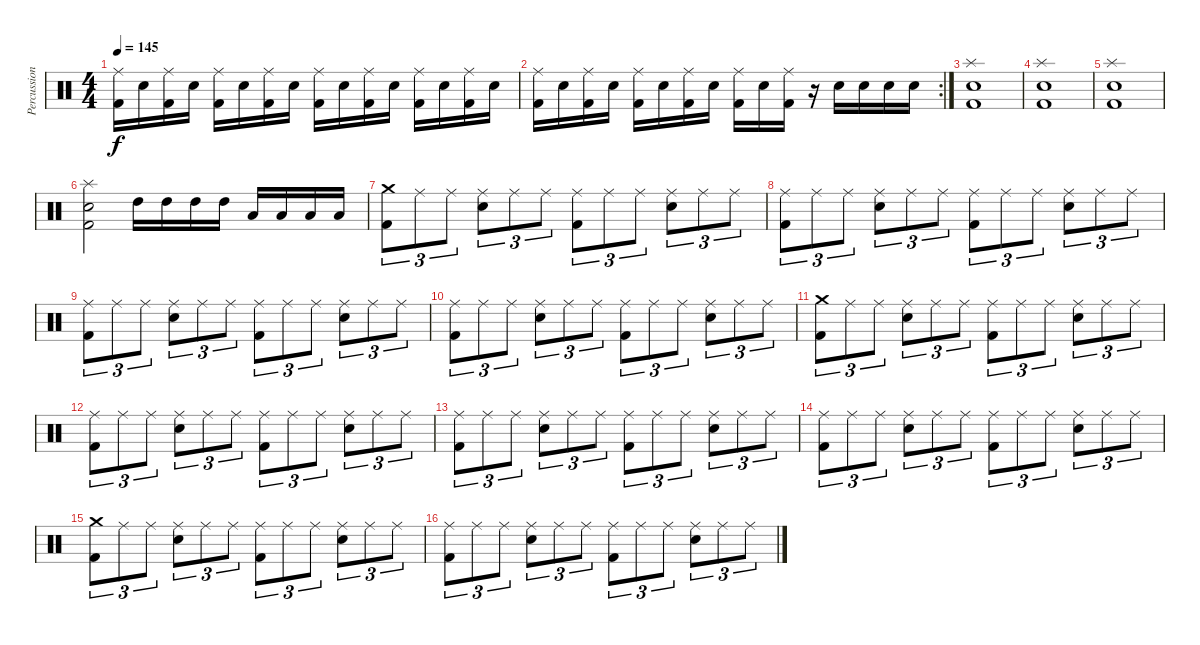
\track ("Percussions" "Percussion") {instrument percussion}
\staff {score}
\articulation defaults
\ts (4 4)
\tempo 145
\clef neutral
\ks c
("Ride (middle)" "Kick (hit) 2").16{dy f} "Snare (hit) 2".16 ("Ride (middle)" "Kick (hit) 2").16 "Snare (hit) 2".16 ("Ride (middle)" "Kick (hit) 2").16 "Snare (hit) 2".16 ("Ride (middle)" "Kick (hit) 2").16 "Snare (hit) 2".16 ("Ride (middle)" "Kick (hit) 2").16 "Snare (hit) 2".16 ("Ride (middle)" "Kick (hit) 2").16 "Snare (hit) 2".16 ("Ride (middle)" "Kick (hit) 2").16 "Snare (hit) 2".16 ("Ride (middle)" "Kick (hit) 2").16 "Snare (hit) 2".16 |
\rc 2
("Ride (middle)" "Kick (hit) 2").16 "Snare (hit) 2".16 ("Ride (middle)" "Kick (hit) 2").16 "Snare (hit) 2".16 ("Ride (middle)" "Kick (hit) 2").16 "Snare (hit) 2".16 ("Ride (middle)" "Kick (hit) 2").16 "Snare (hit) 2".16 ("Ride (middle)" "Kick (hit) 2").16 "Snare (hit) 2".16 ("Ride (middle)" "Kick (hit) 2").16 r.16 "Snare (hit) 2".16 "Snare (hit) 2".16 "Snare (hit) 2".16 "Snare (hit) 2".16 |
("Splash (hit)" "Snare (hit) 2" "Kick (hit) 2").1 |
("Splash (hit)" "Snare (hit) 2" "Kick (hit) 2").1 |
("Splash (hit)" "Snare (hit) 2" "Kick (hit) 2").1 |
("Splash (hit)" "Snare (hit) 2" "Kick (hit) 2").2 "High Tom (hit)".16 "High Tom (hit)".16 "High Tom (hit)".16 "High Tom (hit)".16 "Low Tom (hit)".16 "Low Tom (hit)".16 "Low Tom (hit)".16 "Low Tom (hit)".16 |
("Crash medium (hit)" "Kick (hit) 2").8{tu (3 2)} "Ride (middle)".8{tu (3 2)} "Ride (middle)".8{tu (3 2)} ("Ride (middle)" "Snare (hit) 2").8{tu (3 2)} "Ride (middle)".8{tu (3 2)} "Ride (middle)".8{tu (3 2)} ("Ride (middle)" "Kick (hit) 2").8{tu (3 2)} "Ride (middle)".8{tu (3 2)} "Ride (middle)".8{tu (3 2)} ("Ride (middle)" "Snare (hit) 2").8{tu (3 2)} "Ride (middle)".8{tu (3 2)} "Ride (middle)".8{tu (3 2)} |
("Ride (middle)" "Kick (hit) 2").8{tu (3 2)} "Ride (middle)".8{tu (3 2)} "Ride (middle)".8{tu (3 2)} ("Ride (middle)" "Snare (hit) 2").8{tu (3 2)} "Ride (middle)".8{tu (3 2)} "Ride (middle)".8{tu (3 2)} ("Ride (middle)" "Kick (hit) 2").8{tu (3 2)} "Ride (middle)".8{tu (3 2)} "Ride (middle)".8{tu (3 2)} ("Ride (middle)" "Snare (hit) 2").8{tu (3 2)} "Ride (middle)".8{tu (3 2)} "Ride (middle)".8{tu (3 2)} |
("Ride (middle)" "Kick (hit) 2").8{tu (3 2)} "Ride (middle)".8{tu (3 2)} "Ride (middle)".8{tu (3 2)} ("Ride (middle)" "Snare (hit) 2").8{tu (3 2)} "Ride (middle)".8{tu (3 2)} "Ride (middle)".8{tu (3 2)} ("Ride (middle)" "Kick (hit) 2").8{tu (3 2)} "Ride (middle)".8{tu (3 2)} "Ride (middle)".8{tu (3 2)} ("Ride (middle)" "Snare (hit) 2").8{tu (3 2)} "Ride (middle)".8{tu (3 2)} "Ride (middle)".8{tu (3 2)} |
("Ride (middle)" "Kick (hit) 2").8{tu (3 2)} "Ride (middle)".8{tu (3 2)} "Ride (middle)".8{tu (3 2)} ("Ride (middle)" "Snare (hit) 2").8{tu (3 2)} "Ride (middle)".8{tu (3 2)} "Ride (middle)".8{tu (3 2)} ("Ride (middle)" "Kick (hit) 2").8{tu (3 2)} "Ride (middle)".8{tu (3 2)} "Ride (middle)".8{tu (3 2)} ("Ride (middle)" "Snare (hit) 2").8{tu (3 2)} "Ride (middle)".8{tu (3 2)} "Ride (middle)".8{tu (3 2)} |
("Crash medium (hit)" "Kick (hit) 2").8{tu (3 2)} "Ride (middle)".8{tu (3 2)} "Ride (middle)".8{tu (3 2)} ("Ride (middle)" "Snare (hit) 2").8{tu (3 2)} "Ride (middle)".8{tu (3 2)} "Ride (middle)".8{tu (3 2)} ("Ride (middle)" "Kick (hit) 2").8{tu (3 2)} "Ride (middle)".8{tu (3 2)} "Ride (middle)".8{tu (3 2)} ("Ride (middle)" "Snare (hit) 2").8{tu (3 2)} "Ride (middle)".8{tu (3 2)} "Ride (middle)".8{tu (3 2)} |
("Ride (middle)" "Kick (hit) 2").8{tu (3 2)} "Ride (middle)".8{tu (3 2)} "Ride (middle)".8{tu (3 2)} ("Ride (middle)" "Snare (hit) 2").8{tu (3 2)} "Ride (middle)".8{tu (3 2)} "Ride (middle)".8{tu (3 2)} ("Ride (middle)" "Kick (hit) 2").8{tu (3 2)} "Ride (middle)".8{tu (3 2)} "Ride (middle)".8{tu (3 2)} ("Ride (middle)" "Snare (hit) 2").8{tu (3 2)} "Ride (middle)".8{tu (3 2)} "Ride (middle)".8{tu (3 2)} |
("Ride (middle)" "Kick (hit) 2").8{tu (3 2)} "Ride (middle)".8{tu (3 2)} "Ride (middle)".8{tu (3 2)} ("Ride (middle)" "Snare (hit) 2").8{tu (3 2)} "Ride (middle)".8{tu (3 2)} "Ride (middle)".8{tu (3 2)} ("Ride (middle)" "Kick (hit) 2").8{tu (3 2)} "Ride (middle)".8{tu (3 2)} "Ride (middle)".8{tu (3 2)} ("Ride (middle)" "Snare (hit) 2").8{tu (3 2)} "Ride (middle)".8{tu (3 2)} "Ride (middle)".8{tu (3 2)} |
("Ride (middle)" "Kick (hit) 2").8{tu (3 2)} "Ride (middle)".8{tu (3 2)} "Ride (middle)".8{tu (3 2)} ("Ride (middle)" "Snare (hit) 2").8{tu (3 2)} "Ride (middle)".8{tu (3 2)} "Ride (middle)".8{tu (3 2)} ("Ride (middle)" "Kick (hit) 2").8{tu (3 2)} "Ride (middle)".8{tu (3 2)} "Ride (middle)".8{tu (3 2)} ("Ride (middle)" "Snare (hit) 2").8{tu (3 2)} "Ride (middle)".8{tu (3 2)} "Ride (middle)".8{tu (3 2)} |
("Crash medium (hit)" "Kick (hit) 2").8{tu (3 2)} "Ride (middle)".8{tu (3 2)} "Ride (middle)".8{tu (3 2)} ("Ride (middle)" "Snare (hit) 2").8{tu (3 2)} "Ride (middle)".8{tu (3 2)} "Ride (middle)".8{tu (3 2)} ("Ride (middle)" "Kick (hit) 2").8{tu (3 2)} "Ride (middle)".8{tu (3 2)} "Ride (middle)".8{tu (3 2)} ("Ride (middle)" "Snare (hit) 2").8{tu (3 2)} "Ride (middle)".8{tu (3 2)} "Ride (middle)".8{tu (3 2)} |
("Ride (middle)" "Kick (hit) 2").8{tu (3 2)} "Ride (middle)".8{tu (3 2)} "Ride (middle)".8{tu (3 2)} ("Ride (middle)" "Snare (hit) 2").8{tu (3 2)} "Ride (middle)".8{tu (3 2)} "Ride (middle)".8{tu (3 2)} ("Ride (middle)" "Kick (hit) 2").8{tu (3 2)} "Ride (middle)".8{tu (3 2)} "Ride (middle)".8{tu (3 2)} ("Ride (middle)" "Snare (hit) 2").8{tu (3 2)} "Ride (middle)".8{tu (3 2)} "Ride (middle)".8{tu (3 2)}
